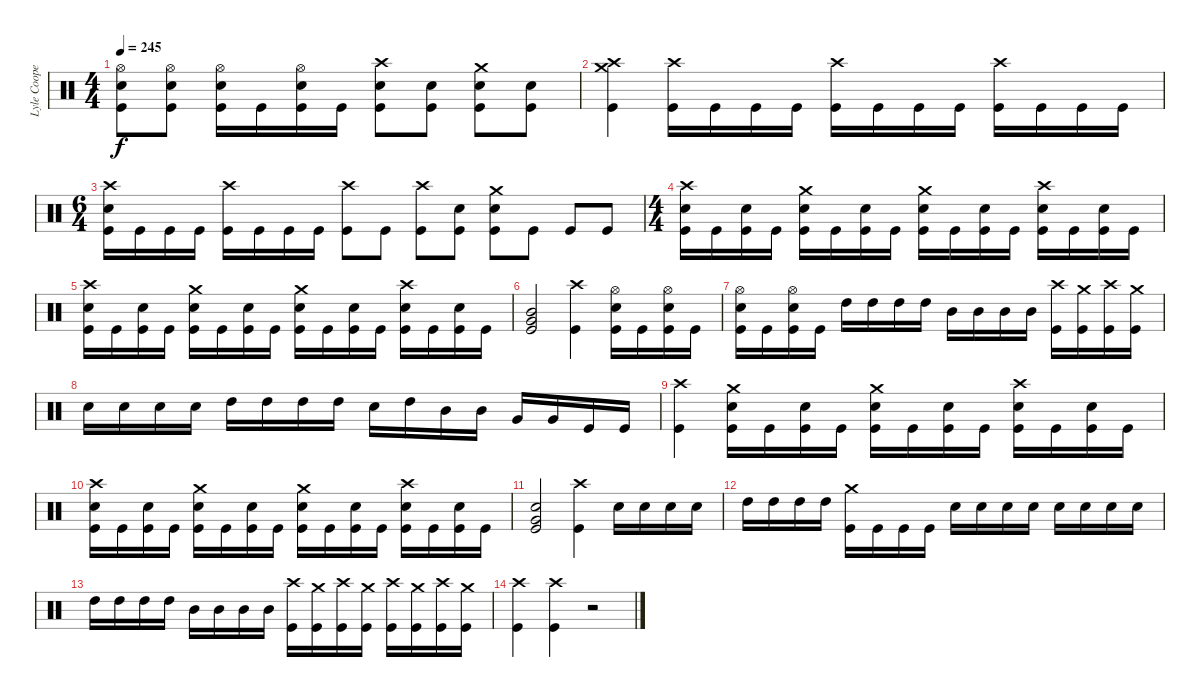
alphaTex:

\track ("Lyle Cooper" "Lyle Coope") {instrument percussion}
\staff {score}
\articulation defaults
\ts (4 4)
\tempo 245
\clef neutral
\ks c
("Hi-Hat (open)" "Snare (hit) 2" "Kick (hit)").8{dy f} ("Hi-Hat (open)" "Snare (hit) 2" "Kick (hit)").8 ("Hi-Hat (open)" "Snare (hit) 2" "Kick (hit)").16 "Kick (hit)".16 ("Hi-Hat (open)" "Snare (hit) 2" "Kick (hit)").16 "Kick (hit)".16 ("Crash high (hit)" "Snare (hit) 2" "Kick (hit)").8 ("Snare (hit) 2" "Kick (hit)").8 ("Crash medium (hit)" "Snare (hit) 2" "Kick (hit)").8 ("Snare (hit) 2" "Kick (hit)").8 |
("Crash high (hit)" "Crash medium (hit)" "Kick (hit)").4 ("Crash high (hit)" "Kick (hit)").16 "Kick (hit)".16 "Kick (hit)".16 "Kick (hit)".16 ("Crash high (hit)" "Kick (hit)").16 "Kick (hit)".16 "Kick (hit)".16 "Kick (hit)".16 ("Crash high (hit)" "Kick (hit)").16 "Kick (hit)".16 "Kick (hit)".16 "Kick (hit)".16 |
\ts (6 4)
("Crash high (hit)" "Snare (hit) 2" "Kick (hit)").16 "Kick (hit)".16 "Kick (hit)".16 "Kick (hit)".16 ("Crash high (hit)" "Kick (hit)").16 "Kick (hit)".16 "Kick (hit)".16 "Kick (hit)".16 ("Crash high (hit)" "Kick (hit)").8 "Kick (hit)".8 ("Crash high (hit)" "Kick (hit)").8 ("Snare (hit) 2" "Kick (hit)").8 ("Crash medium (hit)" "Snare (hit) 2" "Kick (hit)").8 "Kick (hit)".8 "Kick (hit)".8 "Kick (hit)".8 |
\ts (4 4)
("Crash high (hit)" "Snare (hit) 2" "Kick (hit)").16 "Kick (hit)".16 ("Snare (hit) 2" "Kick (hit)").16 "Kick (hit)".16 ("Crash medium (hit)" "Snare (hit) 2" "Kick (hit)").16 "Kick (hit)".16 ("Snare (hit) 2" "Kick (hit)").16 "Kick (hit)".16 ("Crash medium (hit)" "Snare (hit) 2" "Kick (hit)").16 "Kick (hit)".16 ("Snare (hit) 2" "Kick (hit)").16 "Kick (hit)".16 ("Crash high (hit)" "Snare (hit) 2" "Kick (hit)").16 "Kick (hit)".16 ("Snare (hit) 2" "Kick (hit)").16 "Kick (hit)".16 |
("Crash high (hit)" "Snare (hit) 2" "Kick (hit)").16 "Kick (hit)".16 ("Snare (hit) 2" "Kick (hit)").16 "Kick (hit)".16 ("Crash medium (hit)" "Snare (hit) 2" "Kick (hit)").16 "Kick (hit)".16 ("Snare (hit) 2" "Kick (hit)").16 "Kick (hit)".16 ("Crash medium (hit)" "Snare (hit) 2" "Kick (hit)").16 "Kick (hit)".16 ("Snare (hit) 2" "Kick (hit)").16 "Kick (hit)".16 ("Crash high (hit)" "Snare (hit) 2" "Kick (hit)").16 "Kick (hit)".16 ("Snare (hit) 2" "Kick (hit)").16 "Kick (hit)".16 |
("Very Low Tom (hit)" "Mid Tom (hit)" "Kick (hit)").2 ("Crash high (hit)" "Kick (hit)").4 ("Hi-Hat (open)" "Snare (hit) 2" "Kick (hit)").16 "Kick (hit)".16 ("Hi-Hat (open)" "Snare (hit) 2" "Kick (hit)").16 "Kick (hit)".16 |
("Hi-Hat (open)" "Snare (hit) 2" "Kick (hit)").16 "Kick (hit)".16 ("Hi-Hat (open)" "Snare (hit) 2" "Kick (hit)").16 "Kick (hit)".16 "High Tom (hit)".16 "High Tom (hit)".16 "High Tom (hit)".16 "High Tom (hit)".16 "Mid Tom (hit)".16 "Mid Tom (hit)".16 "Mid Tom (hit)".16 "Mid Tom (hit)".16 ("Crash high (hit)" "Kick (hit)").16 ("Crash medium (hit)" "Kick (hit)").16 ("Crash high (hit)" "Kick (hit)").16 ("Crash medium (hit)" "Kick (hit)").16 |
"Snare (hit) 2".16 "Snare (hit) 2".16 "Snare (hit) 2".16 "Snare (hit) 2".16 "High Tom (hit)".16 "High Tom (hit)".16 "High Tom (hit)".16 "High Tom (hit)".16 "Snare (hit) 2".16 "High Tom (hit)".16 "Mid Tom (hit)".16 "Mid Tom (hit)".16 "Very Low Tom (hit)".16 "Very Low Tom (hit)".16 "Kick (hit)".16 "Kick (hit)".16 |
("Crash high (hit)" "Kick (hit)").4 ("Crash medium (hit)" "Snare (hit) 2" "Kick (hit)").16 "Kick (hit)".16 ("Snare (hit) 2" "Kick (hit)").16 "Kick (hit)".16 ("Crash medium (hit)" "Snare (hit) 2" "Kick (hit)").16 "Kick (hit)".16 ("Snare (hit) 2" "Kick (hit)").16 "Kick (hit)".16 ("Crash high (hit)" "Snare (hit) 2" "Kick (hit)").16 "Kick (hit)".16 ("Snare (hit) 2" "Kick (hit)").16 "Kick (hit)".16 |
("Crash high (hit)" "Snare (hit) 2" "Kick (hit)").16 "Kick (hit)".16 ("Snare (hit) 2" "Kick (hit)").16 "Kick (hit)".16 ("Crash medium (hit)" "Snare (hit) 2" "Kick (hit)").16 "Kick (hit)".16 ("Snare (hit) 2" "Kick (hit)").16 "Kick (hit)".16 ("Crash medium (hit)" "Snare (hit) 2" "Kick (hit)").16 "Kick (hit)".16 ("Snare (hit) 2" "Kick (hit)").16 "Kick (hit)".16 ("Crash high (hit)" "Snare (hit) 2" "Kick (hit)").16 "Kick (hit)".16 ("Snare (hit) 2" "Kick (hit)").16 "Kick (hit)".16 |
("Very Low Tom (hit)" "Snare (hit) 2" "Kick (hit)").2 ("Crash high (hit)" "Kick (hit)").4 "Snare (hit) 2".16 "Snare (hit) 2".16 "Snare (hit) 2".16 "Snare (hit) 2".16 |
"High Tom (hit)".16 "High Tom (hit)".16 "High Tom (hit)".16 "High Tom (hit)".16 ("Crash medium (hit)" "Kick (hit)").16 "Kick (hit)".16 "Kick (hit)".16 "Kick (hit)".16 "Snare (hit) 2".16 "Snare (hit) 2".16 "Snare (hit) 2".16 "Snare (hit) 2".16 "Snare (hit) 2".16 "Snare (hit) 2".16 "Snare (hit) 2".16 "Snare (hit) 2".16 |
"High Tom (hit)".16 "High Tom (hit)".16 "High Tom (hit)".16 "High Tom (hit)".16 "Mid Tom (hit)".16 "Mid Tom (hit)".16 "Mid Tom (hit)".16 "Mid Tom (hit)".16 ("Crash high (hit)" "Kick (hit)").16 ("Crash medium (hit)" "Kick (hit)").16 ("Crash high (hit)" "Kick (hit)").16 ("Crash medium (hit)" "Kick (hit)").16 ("Crash high (hit)" "Kick (hit)").16 ("Crash medium (hit)" "Kick (hit)").16 ("Crash high (hit)" "Kick (hit)").16 ("Crash medium (hit)" "Kick (hit)").16 |
("Crash high (hit)" "Kick (hit)").4 ("Crash high (hit)" "Kick (hit)").4 r.2
